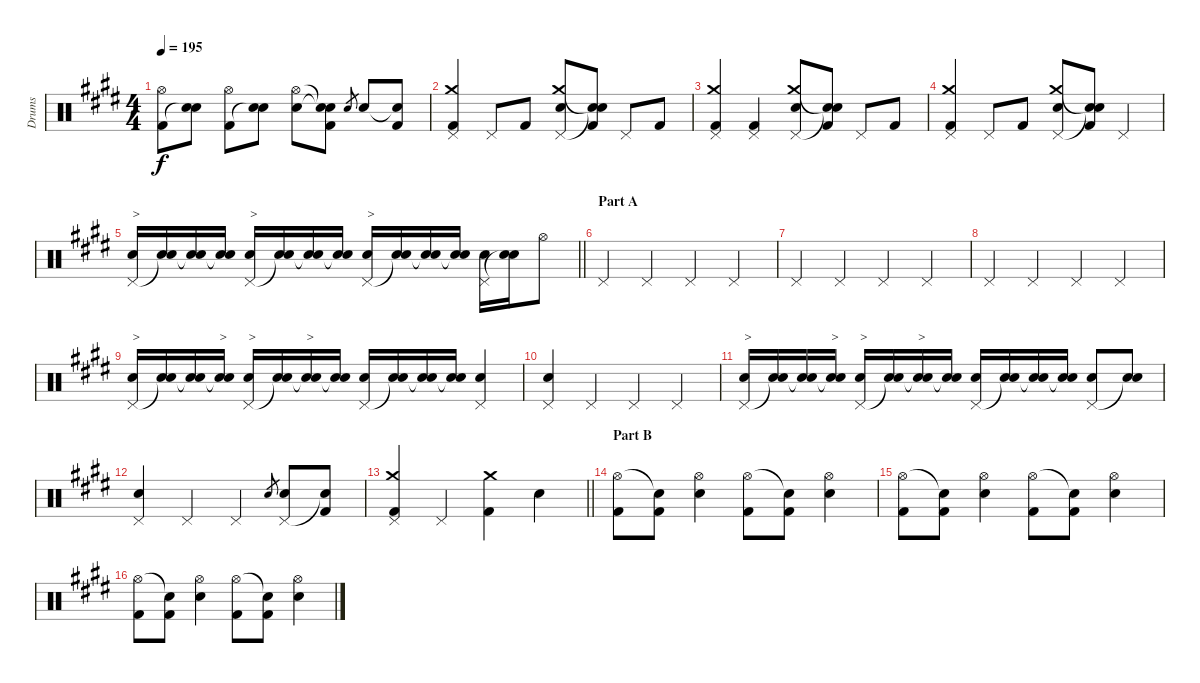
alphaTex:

\track ("Drums" "Drums") {instrument percussion}
\staff {score}
\articulation defaults
\ts (4 4)
\tempo 195
\clef neutral
\ks e
("Hi-Hat (open)" "Kick (hit) 2").8{dy f} ("Electric Snare (hit)" "Snare (hit)"{t}).8 ("Hi-Hat (open)" "Kick (hit) 2").8 ("Electric Snare (hit)" "Snare (hit)"{t}).8 ("Hi-Hat (open)" "Electric Snare (hit)").8 ("Snare (hit)"{t} "Snare (hit)"{t} "Kick (hit) 2").8 "Electric Snare (hit)".8{gr} "Electric Snare (hit)".8 ("Snare (hit)"{t} "Kick (hit) 2").8 |
("Crash medium (hit)" "Pedal Hi-Hat (hit)" "Kick (hit) 2").4 "Pedal Hi-Hat (hit)".8 "Kick (hit) 2".8 ("Crash medium (hit)" "Pedal Hi-Hat (hit)" "Electric Snare (hit)").8 ("Snare (hit)"{t} "Snare (hit)"{t} "Kick (hit) 2").8 "Pedal Hi-Hat (hit)".8 "Kick (hit) 2".8 |
("Crash medium (hit)" "Pedal Hi-Hat (hit)" "Kick (hit) 2").4 ("Pedal Hi-Hat (hit)" "Kick (hit) 2").4 ("Crash medium (hit)" "Pedal Hi-Hat (hit)" "Electric Snare (hit)").8 ("Snare (hit)"{t} "Snare (hit)"{t} "Kick (hit) 2").8 "Pedal Hi-Hat (hit)".8 "Kick (hit) 2".8 |
("Crash medium (hit)" "Pedal Hi-Hat (hit)" "Kick (hit) 2").4 "Pedal Hi-Hat (hit)".8 "Kick (hit) 2".8 ("Crash medium (hit)" "Pedal Hi-Hat (hit)" "Electric Snare (hit)").8 ("Snare (hit)"{t} "Snare (hit)"{t} "Kick (hit) 2").8 "Pedal Hi-Hat (hit)".4 |
\barLineRight lightlight
("Pedal Hi-Hat (hit)" "Electric Snare (hit)").16{txt ">"} ("Snare (hit)"{t} "Electric Snare (hit)").16 ("Snare (hit)"{t} "Electric Snare (hit)").16 ("Snare (hit)"{t} "Electric Snare (hit)").16 ("Pedal Hi-Hat (hit)" "Electric Snare (hit)").16{txt ">"} ("Snare (hit)"{t} "Electric Snare (hit)").16 ("Snare (hit)"{t} "Electric Snare (hit)").16 ("Snare (hit)"{t} "Electric Snare (hit)").16 ("Pedal Hi-Hat (hit)" "Electric Snare (hit)").16{txt ">"} ("Snare (hit)"{t} "Electric Snare (hit)").16 ("Snare (hit)"{t} "Electric Snare (hit)").16 ("Snare (hit)"{t} "Electric Snare (hit)").16 ("Pedal Hi-Hat (hit)" "Electric Snare (hit)").16 ("Snare (hit)"{t} "Electric Snare (hit)").16 "Hi-Hat (open)".8 |
\section ("" "Part A")
"Pedal Hi-Hat (hit)".4 "Pedal Hi-Hat (hit)".4 "Pedal Hi-Hat (hit)".4 "Pedal Hi-Hat (hit)".4 |
"Pedal Hi-Hat (hit)".4 "Pedal Hi-Hat (hit)".4 "Pedal Hi-Hat (hit)".4 "Pedal Hi-Hat (hit)".4 |
"Pedal Hi-Hat (hit)".4 "Pedal Hi-Hat (hit)".4 "Pedal Hi-Hat (hit)".4 "Pedal Hi-Hat (hit)".4 |
("Pedal Hi-Hat (hit)" "Snare (hit) 2").16{txt ">"} ("Snare (hit)"{t} "Snare (hit) 2").16 ("Snare (hit)"{t} "Snare (hit) 2").16 ("Snare (hit)"{t} "Snare (hit) 2").16{txt ">"} ("Pedal Hi-Hat (hit)" "Snare (hit) 2").16{txt ">"} ("Snare (hit)"{t} "Snare (hit) 2").16 ("Snare (hit)"{t} "Snare (hit) 2").16{txt ">"} ("Snare (hit)"{t} "Snare (hit) 2").16 ("Pedal Hi-Hat (hit)" "Snare (hit) 2").16 ("Snare (hit)"{t} "Snare (hit) 2").16 ("Snare (hit)"{t} "Snare (hit) 2").16 ("Snare (hit)"{t} "Snare (hit) 2").16 ("Pedal Hi-Hat (hit)" "Snare (hit) 2").4 |
("Pedal Hi-Hat (hit)" "Electric Snare (hit)").4 "Pedal Hi-Hat (hit)".4 "Pedal Hi-Hat (hit)".4 "Pedal Hi-Hat (hit)".4 |
("Pedal Hi-Hat (hit)" "Snare (hit) 2").16{txt ">"} ("Snare (hit)"{t} "Snare (hit) 2").16 ("Snare (hit)"{t} "Snare (hit) 2").16 ("Snare (hit)"{t} "Snare (hit) 2").16{txt ">"} ("Pedal Hi-Hat (hit)" "Snare (hit) 2").16{txt ">"} ("Snare (hit)"{t} "Snare (hit) 2").16 ("Snare (hit)"{t} "Snare (hit) 2").16{txt ">"} ("Snare (hit)"{t} "Snare (hit) 2").16 ("Pedal Hi-Hat (hit)" "Snare (hit) 2").16 ("Snare (hit)"{t} "Snare (hit) 2").16 ("Snare (hit)"{t} "Snare (hit) 2").16 ("Snare (hit)"{t} "Snare (hit) 2").16 ("Pedal Hi-Hat (hit)" "Snare (hit) 2").8 ("Snare (hit)"{t} "Snare (hit) 2").8 |
("Pedal Hi-Hat (hit)" "Snare (hit) 2").4 "Pedal Hi-Hat (hit)".4 "Pedal Hi-Hat (hit)".4 "Electric Snare (hit)".8{gr} ("Pedal Hi-Hat (hit)" "Electric Snare (hit)").8 ("Snare (hit)"{t} "Kick (hit) 2").8 |
\barLineRight lightlight
("Crash medium (hit)" "Pedal Hi-Hat (hit)" "Kick (hit) 2").4 "Pedal Hi-Hat (hit)".4 ("Crash medium (hit)" "Kick (hit) 2").4 "Electric Snare (hit)".4 |
\section ("" "Part B")
("Hi-Hat (open)" "Kick (hit) 2").8 ("Snare (hit)"{t} "Kick (hit) 2").8 ("Hi-Hat (open)" "Electric Snare (hit)").4 ("Hi-Hat (open)" "Kick (hit) 2").8 ("Snare (hit)"{t} "Kick (hit) 2").8 ("Hi-Hat (open)" "Electric Snare (hit)").4 |
("Hi-Hat (open)" "Kick (hit) 2").8 ("Snare (hit)"{t} "Kick (hit) 2").8 ("Hi-Hat (open)" "Electric Snare (hit)").4 ("Hi-Hat (open)" "Kick (hit) 2").8 ("Snare (hit)"{t} "Kick (hit) 2").8 ("Hi-Hat (open)" "Electric Snare (hit)").4 |
("Hi-Hat (open)" "Kick (hit) 2").8 ("Snare (hit)"{t} "Kick (hit) 2").8 ("Hi-Hat (open)" "Electric Snare (hit)").4 ("Hi-Hat (open)" "Kick (hit) 2").8 ("Snare (hit)"{t} "Kick (hit) 2").8 ("Hi-Hat (open)" "Electric Snare (hit)").4
